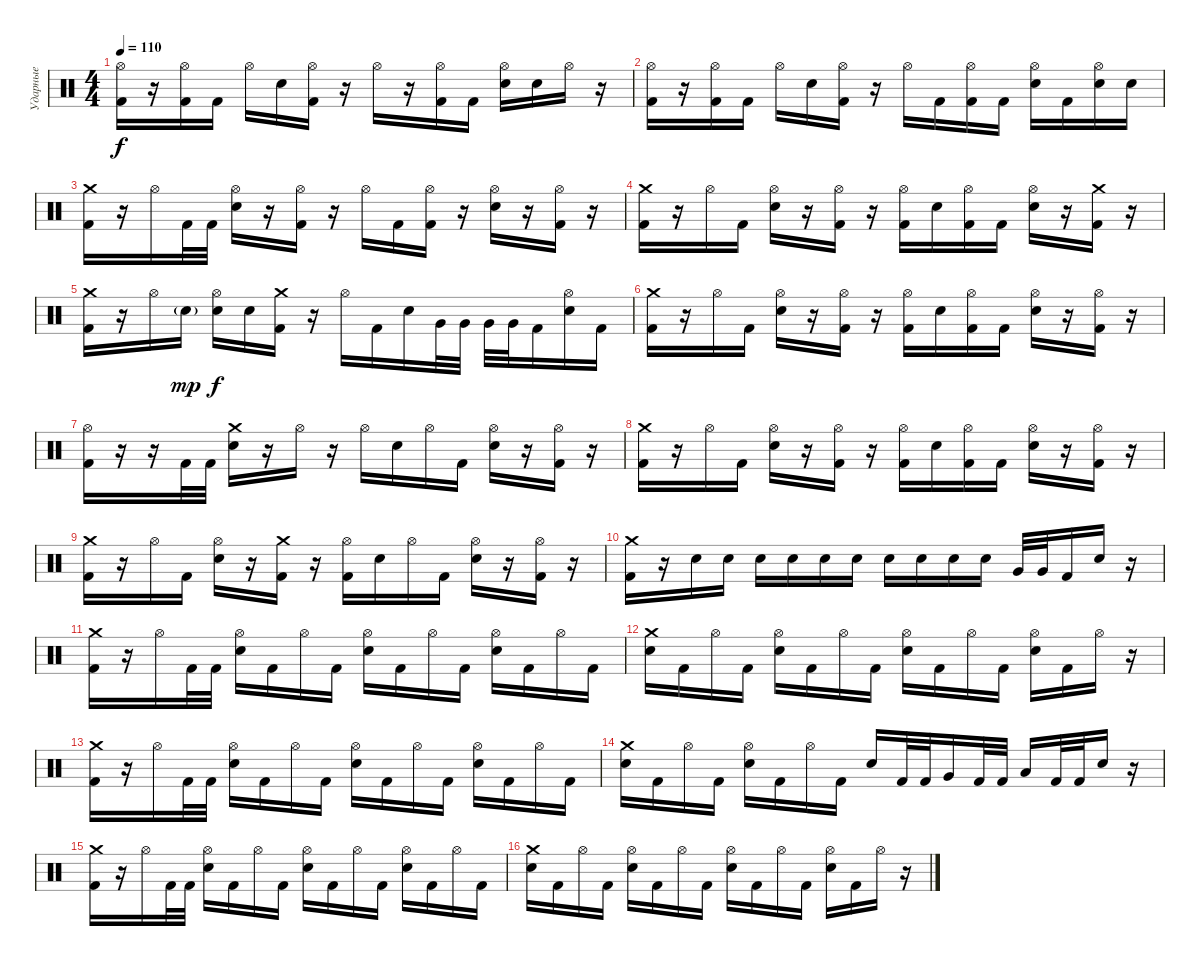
\track ("Ударные" "Ударные") {instrument percussion}
\staff {score}
\articulation defaults
\ts (4 4)
\tempo 110
\clef neutral
\ks c
("Hi-Hat (open)" "Kick (hit) 2").16{dy f} r.16 ("Hi-Hat (open)" "Kick (hit) 2").16 "Kick (hit) 2".16 "Hi-Hat (open)".16 "Electric Snare (hit)".16 ("Hi-Hat (open)" "Kick (hit) 2").16 r.16 "Hi-Hat (open)".16 r.16 ("Hi-Hat (open)" "Kick (hit) 2").16 "Kick (hit) 2".16 ("Hi-Hat (open)" "Electric Snare (hit)").16 "Electric Snare (hit)".16 "Hi-Hat (open)".16 r.16 |
("Hi-Hat (open)" "Kick (hit) 2").16 r.16 ("Hi-Hat (open)" "Kick (hit) 2").16 "Kick (hit) 2".16 "Hi-Hat (open)".16 "Electric Snare (hit)".16 ("Hi-Hat (open)" "Kick (hit) 2").16 r.16 "Hi-Hat (open)".16 "Kick (hit) 2".16 ("Hi-Hat (open)" "Kick (hit) 2").16 "Kick (hit) 2".16 ("Hi-Hat (open)" "Electric Snare (hit)").16 "Kick (hit) 2".16 ("Hi-Hat (open)" "Electric Snare (hit)").16 "Electric Snare (hit)".16 |
("Crash medium (hit)" "Kick (hit) 2").16 r.16 "Hi-Hat (open)".16 "Kick (hit) 2".32 "Kick (hit) 2".32 ("Hi-Hat (open)" "Electric Snare (hit)").16 r.16 ("Hi-Hat (open)" "Kick (hit) 2").16 r.16 "Hi-Hat (open)".16 "Kick (hit) 2".16 ("Hi-Hat (open)" "Kick (hit) 2").16 r.16 ("Hi-Hat (open)" "Electric Snare (hit)").16 r.16 ("Hi-Hat (open)" "Kick (hit) 2").16 r.16 |
("Crash medium (hit)" "Kick (hit) 2").16 r.16 "Hi-Hat (open)".16 "Kick (hit) 2".16 ("Hi-Hat (open)" "Electric Snare (hit)").16 r.16 ("Hi-Hat (open)" "Kick (hit) 2").16 r.16 ("Hi-Hat (open)" "Kick (hit) 2").16 "Electric Snare (hit)".16 ("Hi-Hat (open)" "Kick (hit) 2").16 "Kick (hit) 2".16 ("Hi-Hat (open)" "Electric Snare (hit)").16 r.16 ("Crash medium (hit)" "Kick (hit) 2").16 r.16 |
("Crash medium (hit)" "Kick (hit) 2").16 r.16 "Hi-Hat (open)".16 "Electric Snare (hit)"{g}.16{dy mp} ("Hi-Hat (open)" "Electric Snare (hit)").16{dy f} "Electric Snare (hit)".16 ("Crash medium (hit)" "Kick (hit) 2").16 r.16 "Hi-Hat (open)".16 "Kick (hit) 2".16 "Electric Snare (hit)".16 "Very Low Tom (hit)".32 "Very Low Tom (hit)".32 "Very Low Tom (hit)".32 "Very Low Tom (hit)".32 "Kick (hit) 2".16 ("Hi-Hat (open)" "Electric Snare (hit)").16 "Kick (hit) 2".16 |
("Crash medium (hit)" "Kick (hit) 2").16 r.16 "Hi-Hat (open)".16 "Kick (hit) 2".16 ("Hi-Hat (open)" "Electric Snare (hit)").16 r.16 ("Hi-Hat (open)" "Kick (hit) 2").16 r.16 ("Hi-Hat (open)" "Kick (hit) 2").16 "Electric Snare (hit)".16 ("Hi-Hat (open)" "Kick (hit) 2").16 "Kick (hit) 2".16 ("Hi-Hat (open)" "Electric Snare (hit)").16 r.16 ("Hi-Hat (open)" "Kick (hit) 2").16 r.16 |
("Hi-Hat (open)" "Kick (hit) 2").16 r.16 r.16 "Kick (hit) 2".32 "Kick (hit) 2".32 ("Crash medium (hit)" "Electric Snare (hit)").16 r.16 "Hi-Hat (open)".16 r.16 "Hi-Hat (open)".16 "Electric Snare (hit)".16 "Hi-Hat (open)".16 "Kick (hit) 2".16 ("Hi-Hat (open)" "Electric Snare (hit)").16 r.16 ("Hi-Hat (open)" "Kick (hit) 2").16 r.16 |
("Crash medium (hit)" "Kick (hit) 2").16 r.16 "Hi-Hat (open)".16 "Kick (hit) 2".16 ("Hi-Hat (open)" "Electric Snare (hit)").16 r.16 ("Hi-Hat (open)" "Kick (hit) 2").16 r.16 ("Hi-Hat (open)" "Kick (hit) 2").16 "Electric Snare (hit)".16 ("Hi-Hat (open)" "Kick (hit) 2").16 "Kick (hit) 2".16 ("Hi-Hat (open)" "Electric Snare (hit)").16 r.16 ("Hi-Hat (open)" "Kick (hit) 2").16 r.16 |
("Crash medium (hit)" "Kick (hit) 2").16 r.16 "Hi-Hat (open)".16 "Kick (hit) 2".16 ("Hi-Hat (open)" "Electric Snare (hit)").16 r.16 ("Crash medium (hit)" "Kick (hit) 2").16 r.16 ("Hi-Hat (open)" "Kick (hit) 2").16 "Electric Snare (hit)".16 "Hi-Hat (open)".16 "Kick (hit) 2".16 ("Hi-Hat (open)" "Electric Snare (hit)").16 r.16 ("Hi-Hat (open)" "Kick (hit) 2").16 r.16 |
("Crash medium (hit)" "Kick (hit) 2").16 r.16 "Electric Snare (hit)".16 "Electric Snare (hit)".16 "Electric Snare (hit)".16 "Electric Snare (hit)".16 "Electric Snare (hit)".16 "Electric Snare (hit)".16 "Electric Snare (hit)".16 "Electric Snare (hit)".16 "Electric Snare (hit)".16 "Electric Snare (hit)".16 "Very Low Tom (hit)".32 "Very Low Tom (hit)".32 "Kick (hit) 2".16 "Electric Snare (hit)".16 r.16 |
("Crash medium (hit)" "Kick (hit) 2").16 r.16 "Hi-Hat (open)".16 "Kick (hit) 2".32 "Kick (hit) 2".32 ("Hi-Hat (open)" "Electric Snare (hit)").16 "Kick (hit) 2".16 "Hi-Hat (open)".16 "Kick (hit) 2".16 ("Hi-Hat (open)" "Electric Snare (hit)").16 "Kick (hit) 2".16 "Hi-Hat (open)".16 "Kick (hit) 2".16 ("Hi-Hat (open)" "Electric Snare (hit)").16 "Kick (hit) 2".16 "Hi-Hat (open)".16 "Kick (hit) 2".16 |
("Crash medium (hit)" "Electric Snare (hit)").16 "Kick (hit) 2".16 "Hi-Hat (open)".16 "Kick (hit) 2".16 ("Hi-Hat (open)" "Electric Snare (hit)").16 "Kick (hit) 2".16 "Hi-Hat (open)".16 "Kick (hit) 2".16 ("Hi-Hat (open)" "Electric Snare (hit)").16 "Kick (hit) 2".16 "Hi-Hat (open)".16 "Kick (hit) 2".16 ("Hi-Hat (open)" "Electric Snare (hit)").16 "Kick (hit) 2".16 "Hi-Hat (open)".16 r.16 |
("Crash medium (hit)" "Kick (hit) 2").16 r.16 "Hi-Hat (open)".16 "Kick (hit) 2".32 "Kick (hit) 2".32 ("Hi-Hat (open)" "Electric Snare (hit)").16 "Kick (hit) 2".16 "Hi-Hat (open)".16 "Kick (hit) 2".16 ("Hi-Hat (open)" "Electric Snare (hit)").16 "Kick (hit) 2".16 "Hi-Hat (open)".16 "Kick (hit) 2".16 ("Hi-Hat (open)" "Electric Snare (hit)").16 "Kick (hit) 2".16 "Hi-Hat (open)".16 "Kick (hit) 2".16 |
("Crash medium (hit)" "Electric Snare (hit)").16 "Kick (hit) 2".16 "Hi-Hat (open)".16 "Kick (hit) 2".16 ("Hi-Hat (open)" "Electric Snare (hit)").16 "Kick (hit) 2".16 "Hi-Hat (open)".16 "Kick (hit) 2".16 "Electric Snare (hit)".16 "Kick (hit) 2".32 "Kick (hit) 2".32 "Very Low Tom (hit)".16 "Kick (hit) 2".32 "Kick (hit) 2".32 "Low Floor Tom (hit)".16 "Kick (hit) 2".32 "Kick (hit) 2".32 "Electric Snare (hit)".16 r.16 |
("Crash medium (hit)" "Kick (hit) 2").16 r.16 "Hi-Hat (open)".16 "Kick (hit) 2".32 "Kick (hit) 2".32 ("Hi-Hat (open)" "Electric Snare (hit)").16 "Kick (hit) 2".16 "Hi-Hat (open)".16 "Kick (hit) 2".16 ("Hi-Hat (open)" "Electric Snare (hit)").16 "Kick (hit) 2".16 "Hi-Hat (open)".16 "Kick (hit) 2".16 ("Hi-Hat (open)" "Electric Snare (hit)").16 "Kick (hit) 2".16 "Hi-Hat (open)".16 "Kick (hit) 2".16 |
("Crash medium (hit)" "Electric Snare (hit)").16 "Kick (hit) 2".16 "Hi-Hat (open)".16 "Kick (hit) 2".16 ("Hi-Hat (open)" "Electric Snare (hit)").16 "Kick (hit) 2".16 "Hi-Hat (open)".16 "Kick (hit) 2".16 ("Hi-Hat (open)" "Electric Snare (hit)").16 "Kick (hit) 2".16 "Hi-Hat (open)".16 "Kick (hit) 2".16 ("Hi-Hat (open)" "Electric Snare (hit)").16 "Kick (hit) 2".16 "Hi-Hat (open)".16 r.16
